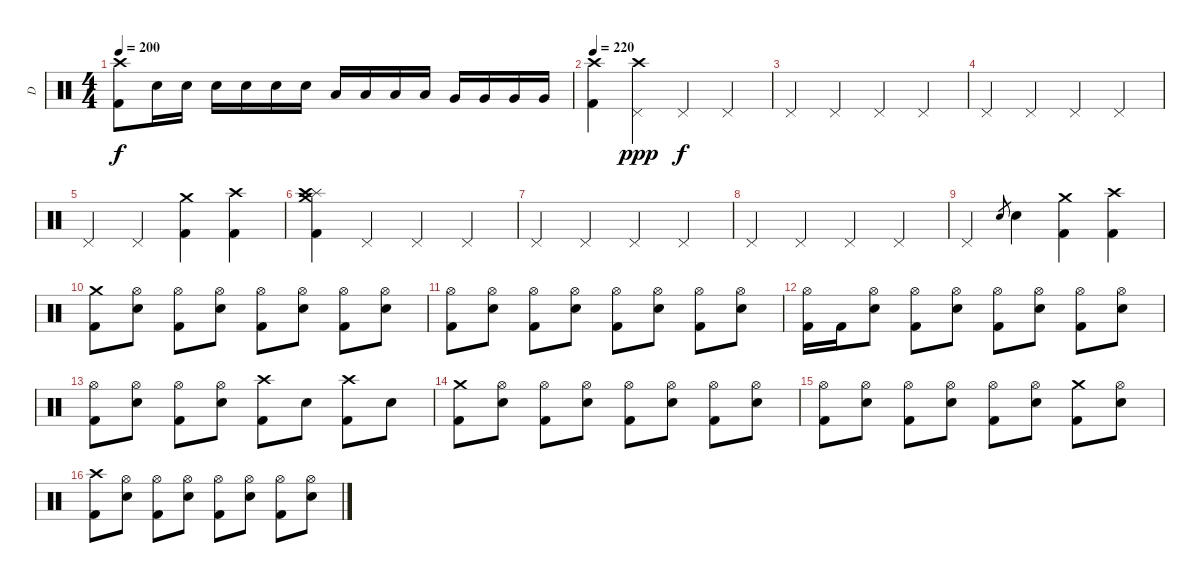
\track ("D" "D") {instrument percussion}
\staff {score}
\articulation defaults
\ts (4 4)
\tempo 200
\clef neutral
\ks c
("Crash high (hit)" "Kick (hit) 2").8{dy f} "Electric Snare (hit)".16 "Electric Snare (hit)".16 "Electric Snare (hit)".16 "Electric Snare (hit)".16 "Electric Snare (hit)".16 "Electric Snare (hit)".16 "Low Tom (hit)".16 "Low Tom (hit)".16 "Low Tom (hit)".16 "Low Tom (hit)".16 "Very Low Tom (hit)".16 "Very Low Tom (hit)".16 "Very Low Tom (hit)".16 "Very Low Tom (hit)".16 |
\tempo 220
("Crash high (hit)" "Kick (hit) 2").4 ("Crash high (hit)" "Pedal Hi-Hat (hit)").4{dy ppp} "Pedal Hi-Hat (hit)".4{dy f} "Pedal Hi-Hat (hit)".4 |
"Pedal Hi-Hat (hit)".4 "Pedal Hi-Hat (hit)".4 "Pedal Hi-Hat (hit)".4 "Pedal Hi-Hat (hit)".4 |
"Pedal Hi-Hat (hit)".4 "Pedal Hi-Hat (hit)".4 "Pedal Hi-Hat (hit)".4 "Pedal Hi-Hat (hit)".4 |
"Pedal Hi-Hat (hit)".4 "Pedal Hi-Hat (hit)".4 ("Crash medium (hit)" "Kick (hit) 2").4 ("Crash high (hit)" "Kick (hit) 2").4 |
("Splash (hit)" "Crash medium (hit)" "Crash high (hit)" "Kick (hit) 2").4 "Pedal Hi-Hat (hit)".4 "Pedal Hi-Hat (hit)".4 "Pedal Hi-Hat (hit)".4 |
"Pedal Hi-Hat (hit)".4 "Pedal Hi-Hat (hit)".4 "Pedal Hi-Hat (hit)".4 "Pedal Hi-Hat (hit)".4 |
"Pedal Hi-Hat (hit)".4 "Pedal Hi-Hat (hit)".4 "Pedal Hi-Hat (hit)".4 "Pedal Hi-Hat (hit)".4 |
"Pedal Hi-Hat (hit)".4 "Electric Snare (hit)".8{gr} "Electric Snare (hit)".4 ("Crash medium (hit)" "Kick (hit) 2").4 ("Crash high (hit)" "Kick (hit) 2").4 |
("Crash medium (hit)" "Kick (hit) 2").8 ("Hi-Hat (open)" "Electric Snare (hit)").8 ("Hi-Hat (open)" "Kick (hit) 2").8 ("Hi-Hat (open)" "Electric Snare (hit)").8 ("Hi-Hat (open)" "Kick (hit) 2").8 ("Hi-Hat (open)" "Electric Snare (hit)").8 ("Hi-Hat (open)" "Kick (hit) 2").8 ("Hi-Hat (open)" "Electric Snare (hit)").8 |
("Hi-Hat (open)" "Kick (hit) 2").8 ("Hi-Hat (open)" "Electric Snare (hit)").8 ("Hi-Hat (open)" "Kick (hit) 2").8 ("Hi-Hat (open)" "Electric Snare (hit)").8 ("Hi-Hat (open)" "Kick (hit) 2").8 ("Hi-Hat (open)" "Electric Snare (hit)").8 ("Hi-Hat (open)" "Kick (hit) 2").8 ("Hi-Hat (open)" "Electric Snare (hit)").8 |
("Hi-Hat (open)" "Kick (hit) 2").16 "Kick (hit) 2".16 ("Hi-Hat (open)" "Electric Snare (hit)").8 ("Hi-Hat (open)" "Kick (hit) 2").8 ("Hi-Hat (open)" "Electric Snare (hit)").8 ("Hi-Hat (open)" "Kick (hit) 2").8 ("Hi-Hat (open)" "Electric Snare (hit)").8 ("Hi-Hat (open)" "Kick (hit) 2").8 ("Hi-Hat (open)" "Electric Snare (hit)").8 |
("Hi-Hat (open)" "Kick (hit) 2").8 ("Hi-Hat (open)" "Electric Snare (hit)").8 ("Hi-Hat (open)" "Kick (hit) 2").8 ("Hi-Hat (open)" "Electric Snare (hit)").8 ("Crash high (hit)" "Kick (hit) 2").8 "Electric Snare (hit)".8 ("Crash high (hit)" "Kick (hit) 2").8 "Electric Snare (hit)".8 |
("Crash medium (hit)" "Kick (hit) 2").8 ("Hi-Hat (open)" "Electric Snare (hit)").8 ("Hi-Hat (open)" "Kick (hit) 2").8 ("Hi-Hat (open)" "Electric Snare (hit)").8 ("Hi-Hat (open)" "Kick (hit) 2").8 ("Hi-Hat (open)" "Electric Snare (hit)").8 ("Hi-Hat (open)" "Kick (hit) 2").8 ("Hi-Hat (open)" "Electric Snare (hit)").8 |
("Hi-Hat (open)" "Kick (hit) 2").8 ("Hi-Hat (open)" "Electric Snare (hit)").8 ("Hi-Hat (open)" "Kick (hit) 2").8 ("Hi-Hat (open)" "Electric Snare (hit)").8 ("Hi-Hat (open)" "Kick (hit) 2").8 ("Hi-Hat (open)" "Electric Snare (hit)").8 ("Crash medium (hit)" "Kick (hit) 2").8 ("Hi-Hat (open)" "Electric Snare (hit)").8 |
("Crash high (hit)" "Kick (hit) 2").8 ("Hi-Hat (open)" "Electric Snare (hit)").8 ("Hi-Hat (open)" "Kick (hit) 2").8 ("Hi-Hat (open)" "Electric Snare (hit)").8 ("Hi-Hat (open)" "Kick (hit) 2").8 ("Hi-Hat (open)" "Electric Snare (hit)").8 ("Hi-Hat (open)" "Kick (hit) 2").8 ("Hi-Hat (open)" "Electric Snare (hit)").8
